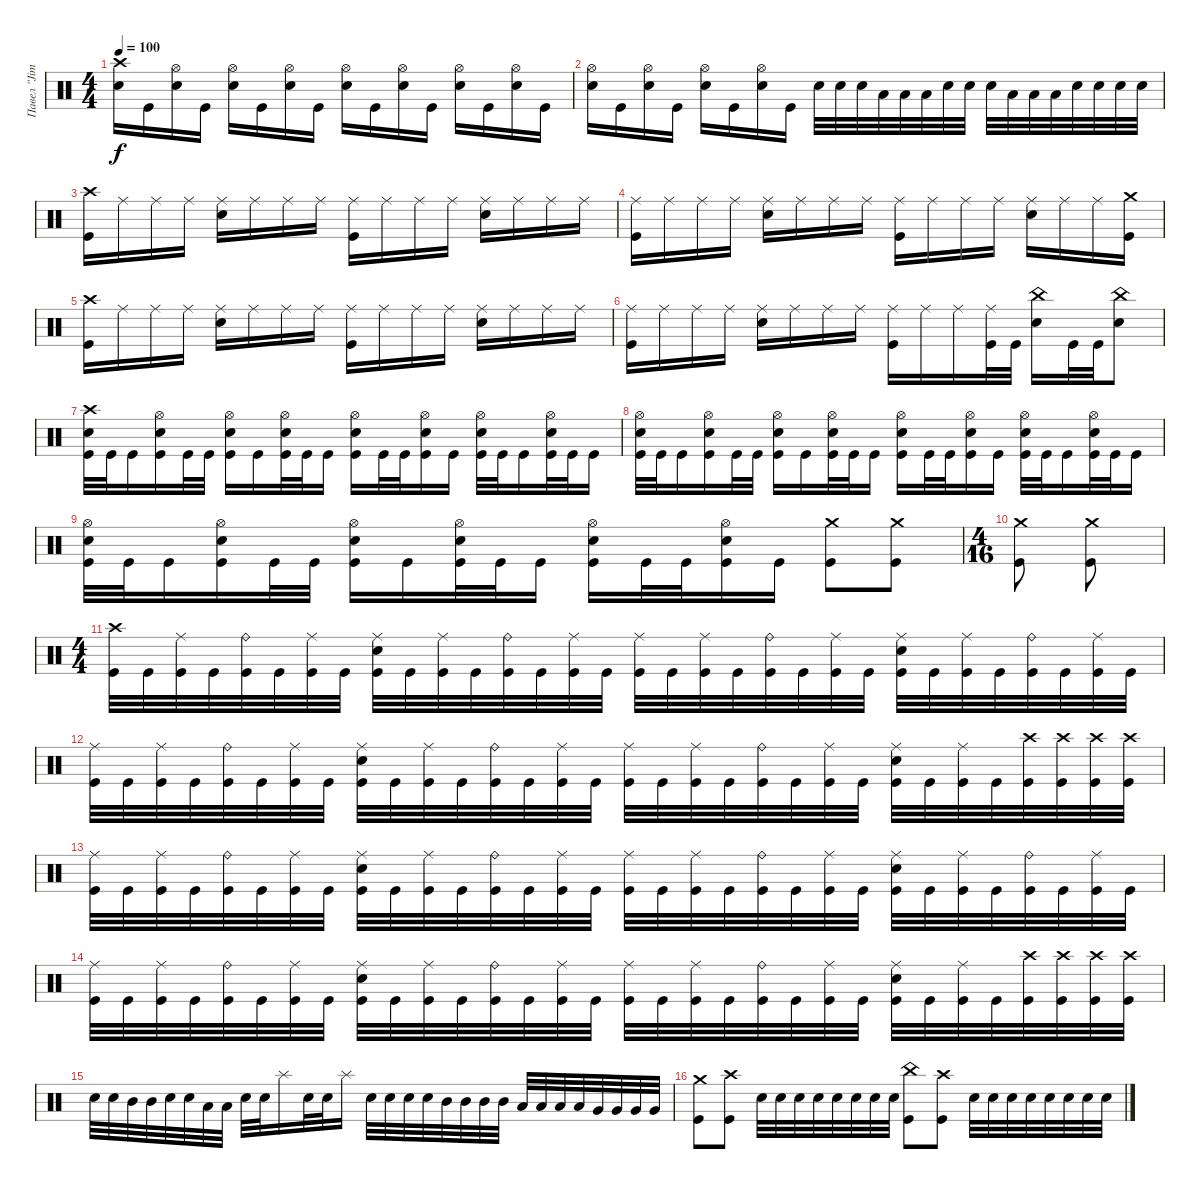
\track ("Павел \"Jim\" Лохнин" "Павел \"Jim") {instrument percussion}
\staff {score}
\articulation defaults
\ts (4 4)
\tempo 100
\clef neutral
\ks c
("Electric Snare (hit)" "Crash high (hit)").16{dy f} "Kick (hit)".16 ("Electric Snare (hit)" "Hi-Hat (open)").16 "Kick (hit)".16 ("Electric Snare (hit)" "Hi-Hat (open)").16 "Kick (hit)".16 ("Electric Snare (hit)" "Hi-Hat (open)").16 "Kick (hit)".16 ("Electric Snare (hit)" "Hi-Hat (open)").16 "Kick (hit)".16 ("Electric Snare (hit)" "Hi-Hat (open)").16 "Kick (hit)".16 ("Electric Snare (hit)" "Hi-Hat (open)").16 "Kick (hit)".16 ("Electric Snare (hit)" "Hi-Hat (open)").16 "Kick (hit)".16 |
("Electric Snare (hit)" "Hi-Hat (open)").16 "Kick (hit)".16 ("Electric Snare (hit)" "Hi-Hat (open)").16 "Kick (hit)".16 ("Electric Snare (hit)" "Hi-Hat (open)").16 "Kick (hit)".16 ("Electric Snare (hit)" "Hi-Hat (open)").16 "Kick (hit)".16 "Electric Snare (hit)".32 "Electric Snare (hit)".32 "Electric Snare (hit)".32 "Low Tom (hit)".32 "Low Tom (hit)".32 "Low Tom (hit)".32 "Electric Snare (hit)".32 "Electric Snare (hit)".32 "Electric Snare (hit)".32 "Low Tom (hit)".32 "Low Tom (hit)".32 "Low Tom (hit)".32 "Electric Snare (hit)".32 "Electric Snare (hit)".32 "Electric Snare (hit)".32 "Electric Snare (hit)".32 |
("Kick (hit)" "Crash high (hit)").16 "Ride (middle)".16 "Ride (middle)".16 "Ride (middle)".16 ("Electric Snare (hit)" "Ride (middle)").16 "Ride (middle)".16 "Ride (middle)".16 "Ride (middle)".16 ("Kick (hit)" "Ride (middle)").16 "Ride (middle)".16 "Ride (middle)".16 "Ride (middle)".16 ("Electric Snare (hit)" "Ride (middle)").16 "Ride (middle)".16 "Ride (middle)".16 "Ride (middle)".16 |
("Kick (hit)" "Ride (middle)").16 "Ride (middle)".16 "Ride (middle)".16 "Ride (middle)".16 ("Electric Snare (hit)" "Ride (middle)").16 "Ride (middle)".16 "Ride (middle)".16 "Ride (middle)".16 ("Kick (hit)" "Ride (middle)").16 "Ride (middle)".16 "Ride (middle)".16 "Ride (middle)".16 ("Electric Snare (hit)" "Ride (middle)").16 "Ride (middle)".16 "Ride (middle)".16 ("Kick (hit)" "Crash medium (hit)").16 |
("Kick (hit)" "Crash high (hit)").16 "Ride (middle)".16 "Ride (middle)".16 "Ride (middle)".16 ("Electric Snare (hit)" "Ride (middle)").16 "Ride (middle)".16 "Ride (middle)".16 "Ride (middle)".16 ("Kick (hit)" "Ride (middle)").16 "Ride (middle)".16 "Ride (middle)".16 "Ride (middle)".16 ("Electric Snare (hit)" "Ride (middle)").16 "Ride (middle)".16 "Ride (middle)".16 "Ride (middle)".16 |
("Kick (hit)" "Ride (middle)").16 "Ride (middle)".16 "Ride (middle)".16 "Ride (middle)".16 ("Electric Snare (hit)" "Ride (middle)").16 "Ride (middle)".16 "Ride (middle)".16 "Ride (middle)".16 ("Kick (hit)" "Ride (middle)").16 "Ride (middle)".16 "Ride (middle)".16 ("Kick (hit)" "Ride (middle)").32 "Kick (hit)".32 ("Electric Snare (hit)" "China (hit)").16 "Kick (hit)".32 "Kick (hit)".32 ("Electric Snare (hit)" "China (hit)").8 |
("Kick (hit)" "Electric Snare (hit)" "Crash high (hit)").32 "Kick (hit)".32 "Kick (hit)".16 ("Kick (hit)" "Electric Snare (hit)" "Hi-Hat (open)").16 "Kick (hit)".32 "Kick (hit)".32 ("Kick (hit)" "Electric Snare (hit)" "Hi-Hat (open)").16 "Kick (hit)".16 ("Kick (hit)" "Electric Snare (hit)" "Hi-Hat (open)").32 "Kick (hit)".32 "Kick (hit)".16 ("Kick (hit)" "Electric Snare (hit)" "Hi-Hat (open)").16 "Kick (hit)".32 "Kick (hit)".32 ("Kick (hit)" "Electric Snare (hit)" "Hi-Hat (open)").16 "Kick (hit)".16 ("Kick (hit)" "Electric Snare (hit)" "Hi-Hat (open)").32 "Kick (hit)".32 "Kick (hit)".16 ("Kick (hit)" "Electric Snare (hit)" "Hi-Hat (open)").32 "Kick (hit)".32 "Kick (hit)".16 |
("Kick (hit)" "Electric Snare (hit)" "Hi-Hat (open)").32 "Kick (hit)".32 "Kick (hit)".16 ("Kick (hit)" "Electric Snare (hit)" "Hi-Hat (open)").16 "Kick (hit)".32 "Kick (hit)".32 ("Kick (hit)" "Electric Snare (hit)" "Hi-Hat (open)").16 "Kick (hit)".16 ("Kick (hit)" "Electric Snare (hit)" "Hi-Hat (open)").32 "Kick (hit)".32 "Kick (hit)".16 ("Kick (hit)" "Electric Snare (hit)" "Hi-Hat (open)").16 "Kick (hit)".32 "Kick (hit)".32 ("Kick (hit)" "Electric Snare (hit)" "Hi-Hat (open)").16 "Kick (hit)".16 ("Kick (hit)" "Electric Snare (hit)" "Hi-Hat (open)").32 "Kick (hit)".32 "Kick (hit)".16 ("Kick (hit)" "Electric Snare (hit)" "Hi-Hat (open)").32 "Kick (hit)".32 "Kick (hit)".16 |
("Kick (hit)" "Electric Snare (hit)" "Hi-Hat (open)").32 "Kick (hit)".32 "Kick (hit)".16 ("Kick (hit)" "Electric Snare (hit)" "Hi-Hat (open)").16 "Kick (hit)".32 "Kick (hit)".32 ("Kick (hit)" "Electric Snare (hit)" "Hi-Hat (open)").16 "Kick (hit)".16 ("Kick (hit)" "Electric Snare (hit)" "Hi-Hat (open)").32 "Kick (hit)".32 "Kick (hit)".16 ("Kick (hit)" "Electric Snare (hit)" "Hi-Hat (open)").16 "Kick (hit)".32 "Kick (hit)".32 ("Kick (hit)" "Electric Snare (hit)" "Hi-Hat (open)").16 "Kick (hit)".16 ("Kick (hit)" "Crash medium (hit)").8 ("Kick (hit)" "Crash medium (hit)").8 |
\ts (4 16)
("Kick (hit)" "Crash medium (hit)").8 ("Kick (hit)" "Crash medium (hit)").8 |
\ts (4 4)
("Kick (hit)" "Crash high (hit)").32 "Kick (hit)".32 ("Kick (hit)" "Ride (middle)").32 "Kick (hit)".32 ("Kick (hit)" "Ride (bell)").32 "Kick (hit)".32 ("Kick (hit)" "Ride (middle)").32 "Kick (hit)".32 ("Kick (hit)" "Electric Snare (hit)" "Ride (middle)").32 "Kick (hit)".32 ("Kick (hit)" "Ride (middle)").32 "Kick (hit)".32 ("Kick (hit)" "Ride (bell)").32 "Kick (hit)".32 ("Kick (hit)" "Ride (middle)").32 "Kick (hit)".32 ("Kick (hit)" "Ride (middle)").32 "Kick (hit)".32 ("Kick (hit)" "Ride (middle)").32 "Kick (hit)".32 ("Kick (hit)" "Ride (bell)").32 "Kick (hit)".32 ("Kick (hit)" "Ride (middle)").32 "Kick (hit)".32 ("Kick (hit)" "Electric Snare (hit)" "Ride (middle)").32 "Kick (hit)".32 ("Kick (hit)" "Ride (middle)").32 "Kick (hit)".32 ("Kick (hit)" "Ride (bell)").32 "Kick (hit)".32 ("Kick (hit)" "Ride (middle)").32 "Kick (hit)".32 |
("Kick (hit)" "Ride (middle)").32 "Kick (hit)".32 ("Kick (hit)" "Ride (middle)").32 "Kick (hit)".32 ("Kick (hit)" "Ride (bell)").32 "Kick (hit)".32 ("Kick (hit)" "Ride (middle)").32 "Kick (hit)".32 ("Kick (hit)" "Electric Snare (hit)" "Ride (middle)").32 "Kick (hit)".32 ("Kick (hit)" "Ride (middle)").32 "Kick (hit)".32 ("Kick (hit)" "Ride (bell)").32 "Kick (hit)".32 ("Kick (hit)" "Ride (middle)").32 "Kick (hit)".32 ("Kick (hit)" "Ride (middle)").32 "Kick (hit)".32 ("Kick (hit)" "Ride (middle)").32 "Kick (hit)".32 ("Kick (hit)" "Ride (bell)").32 "Kick (hit)".32 ("Kick (hit)" "Ride (middle)").32 "Kick (hit)".32 ("Kick (hit)" "Electric Snare (hit)" "Ride (middle)").32 "Kick (hit)".32 ("Kick (hit)" "Ride (middle)").32 "Kick (hit)".32 ("Kick (hit)" "Crash high (hit)").32 ("Kick (hit)" "Crash high (hit)").32 ("Kick (hit)" "Crash high (hit)").32 ("Kick (hit)" "Crash high (hit)").32 |
("Kick (hit)" "Ride (middle)").32 "Kick (hit)".32 ("Kick (hit)" "Ride (middle)").32 "Kick (hit)".32 ("Kick (hit)" "Ride (bell)").32 "Kick (hit)".32 ("Kick (hit)" "Ride (middle)").32 "Kick (hit)".32 ("Kick (hit)" "Electric Snare (hit)" "Ride (middle)").32 "Kick (hit)".32 ("Kick (hit)" "Ride (middle)").32 "Kick (hit)".32 ("Kick (hit)" "Ride (bell)").32 "Kick (hit)".32 ("Kick (hit)" "Ride (middle)").32 "Kick (hit)".32 ("Kick (hit)" "Ride (middle)").32 "Kick (hit)".32 ("Kick (hit)" "Ride (middle)").32 "Kick (hit)".32 ("Kick (hit)" "Ride (bell)").32 "Kick (hit)".32 ("Kick (hit)" "Ride (middle)").32 "Kick (hit)".32 ("Kick (hit)" "Electric Snare (hit)" "Ride (middle)").32 "Kick (hit)".32 ("Kick (hit)" "Ride (middle)").32 "Kick (hit)".32 ("Kick (hit)" "Ride (bell)").32 "Kick (hit)".32 ("Kick (hit)" "Ride (middle)").32 "Kick (hit)".32 |
("Kick (hit)" "Ride (middle)").32 "Kick (hit)".32 ("Kick (hit)" "Ride (middle)").32 "Kick (hit)".32 ("Kick (hit)" "Ride (bell)").32 "Kick (hit)".32 ("Kick (hit)" "Ride (middle)").32 "Kick (hit)".32 ("Kick (hit)" "Electric Snare (hit)" "Ride (middle)").32 "Kick (hit)".32 ("Kick (hit)" "Ride (middle)").32 "Kick (hit)".32 ("Kick (hit)" "Ride (bell)").32 "Kick (hit)".32 ("Kick (hit)" "Ride (middle)").32 "Kick (hit)".32 ("Kick (hit)" "Ride (middle)").32 "Kick (hit)".32 ("Kick (hit)" "Ride (middle)").32 "Kick (hit)".32 ("Kick (hit)" "Ride (bell)").32 "Kick (hit)".32 ("Kick (hit)" "Ride (middle)").32 "Kick (hit)".32 ("Kick (hit)" "Electric Snare (hit)" "Ride (middle)").32 "Kick (hit)".32 ("Kick (hit)" "Ride (middle)").32 "Kick (hit)".32 ("Kick (hit)" "Crash high (hit)").32 ("Kick (hit)" "Crash high (hit)").32 ("Kick (hit)" "Crash high (hit)").32 ("Kick (hit)" "Crash high (hit)").32 |
"Electric Snare (hit)".32 "Electric Snare (hit)".32 "Mid Tom (hit)".32 "Mid Tom (hit)".32 "Electric Snare (hit)".32 "Electric Snare (hit)".32 "Low Tom (hit)".32 "Low Tom (hit)".32 "Electric Snare (hit)".32 "Electric Snare (hit)".32 "Splash (hit)".16 "Electric Snare (hit)".32 "Electric Snare (hit)".32 "Splash (hit)".16 "Electric Snare (hit)".32 "Electric Snare (hit)".32 "Electric Snare (hit)".32 "Electric Snare (hit)".32 "Mid Tom (hit)".32 "Mid Tom (hit)".32 "Mid Tom (hit)".32 "Mid Tom (hit)".32 "Low Tom (hit)".32 "Low Tom (hit)".32 "Low Tom (hit)".32 "Low Tom (hit)".32 "Very Low Tom (hit)".32 "Very Low Tom (hit)".32 "Very Low Tom (hit)".32 "Very Low Tom (hit)".32 |
("Kick (hit)" "Crash medium (hit)").8 ("Kick (hit)" "Crash high (hit)").8 "Electric Snare (hit)".32 "Electric Snare (hit)".32 "Electric Snare (hit)".32 "Electric Snare (hit)".32 "Electric Snare (hit)".32 "Electric Snare (hit)".32 "Electric Snare (hit)".32 "Electric Snare (hit)".32 ("Kick (hit)" "China (hit)").8 ("Kick (hit)" "Crash high (hit)").8 "Electric Snare (hit)".32 "Electric Snare (hit)".32 "Electric Snare (hit)".32 "Electric Snare (hit)".32 "Electric Snare (hit)".32 "Electric Snare (hit)".32 "Electric Snare (hit)".32 "Electric Snare (hit)".32
